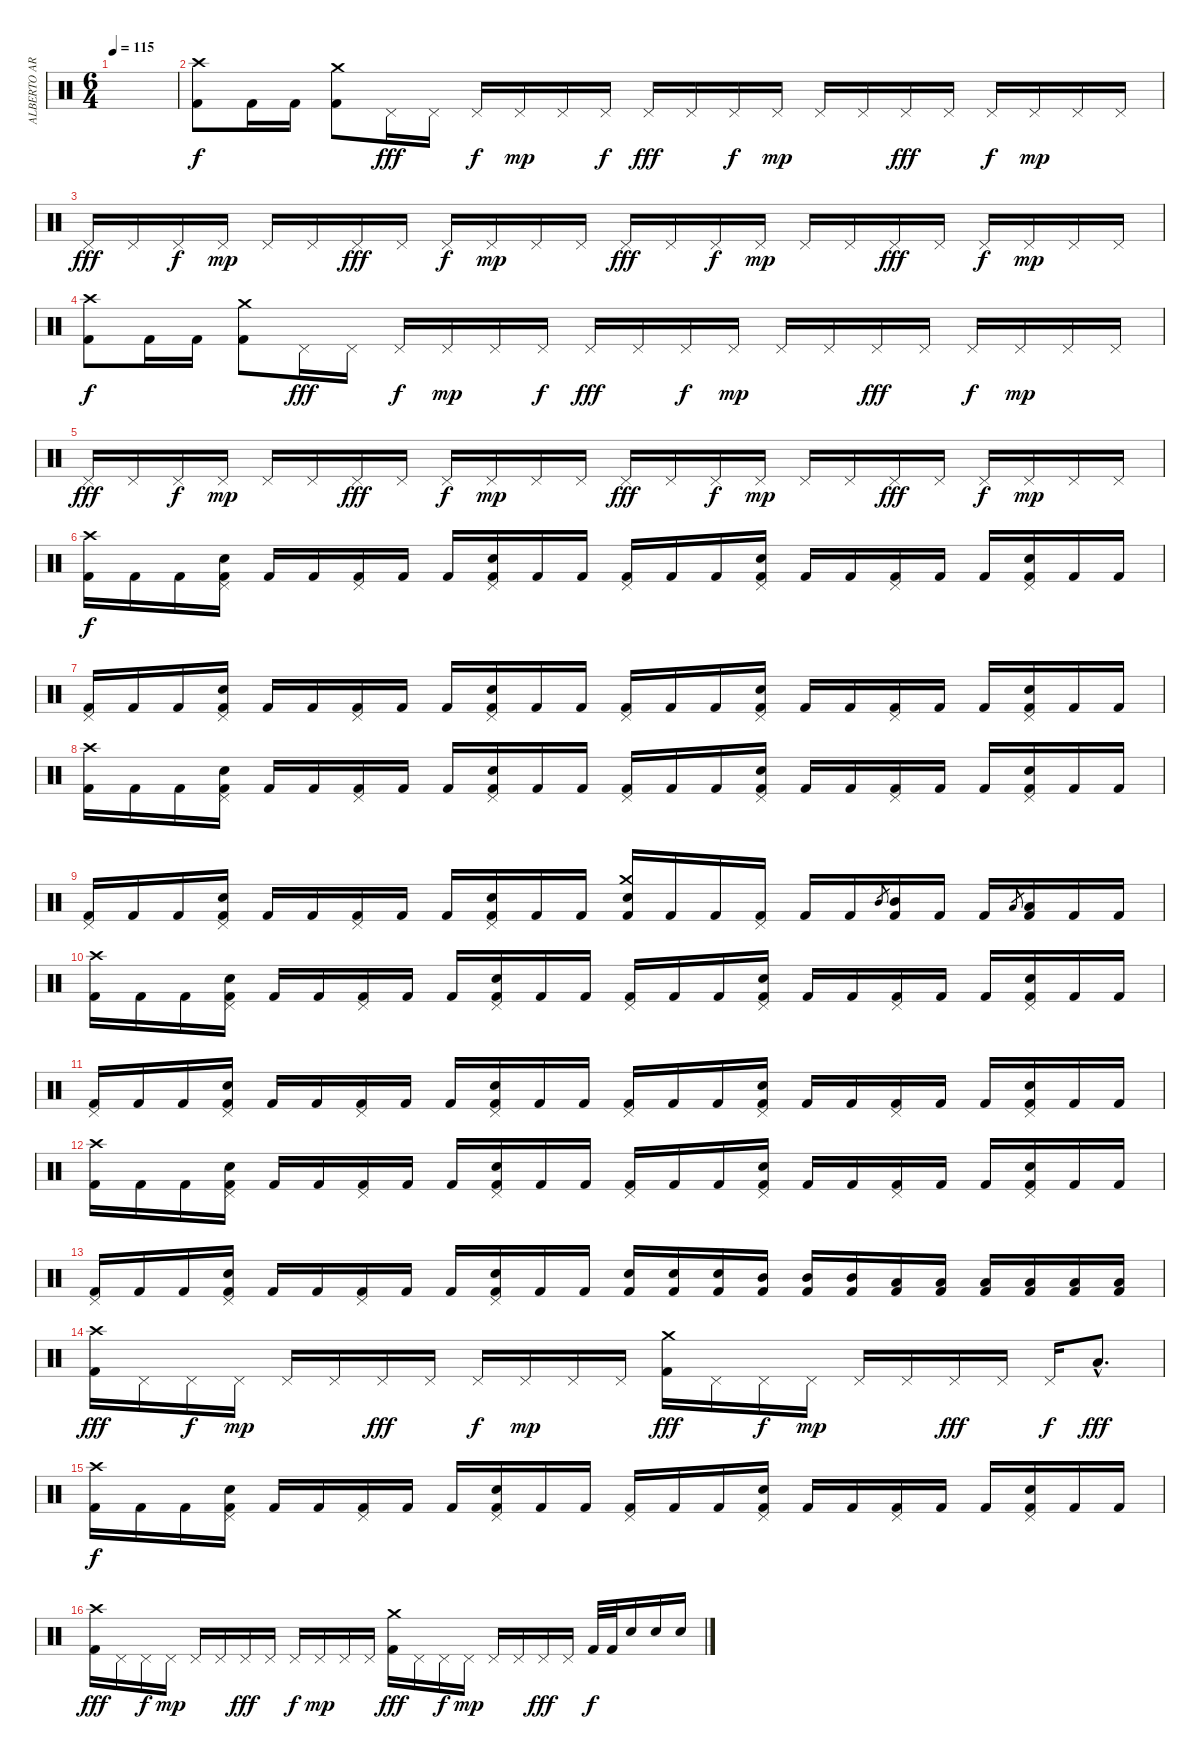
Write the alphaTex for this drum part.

\track ("ALBERTO ARDINES" "ALBERTO AR") {instrument percussion}
\staff {score}
\articulation defaults
\ts (6 4)
\tempo 115
\clef neutral
\ks c
|
("Crash high (hit)" "Kick (hit) 2").8 "Kick (hit) 2".16 "Kick (hit) 2".16 ("Crash medium (hit)" "Kick (hit) 2").8 "Pedal Hi-Hat (hit)".16{dy fff} "Pedal Hi-Hat (hit)".16 "Pedal Hi-Hat (hit)".16{dy f} "Pedal Hi-Hat (hit)".16{dy mp} "Pedal Hi-Hat (hit)".16 "Pedal Hi-Hat (hit)".16{dy f} "Pedal Hi-Hat (hit)".16{dy fff} "Pedal Hi-Hat (hit)".16 "Pedal Hi-Hat (hit)".16{dy f} "Pedal Hi-Hat (hit)".16{dy mp} "Pedal Hi-Hat (hit)".16 "Pedal Hi-Hat (hit)".16 "Pedal Hi-Hat (hit)".16{dy fff} "Pedal Hi-Hat (hit)".16 "Pedal Hi-Hat (hit)".16{dy f} "Pedal Hi-Hat (hit)".16{dy mp} "Pedal Hi-Hat (hit)".16 "Pedal Hi-Hat (hit)".16 |
"Pedal Hi-Hat (hit)".16{dy fff} "Pedal Hi-Hat (hit)".16 "Pedal Hi-Hat (hit)".16{dy f} "Pedal Hi-Hat (hit)".16{dy mp} "Pedal Hi-Hat (hit)".16 "Pedal Hi-Hat (hit)".16 "Pedal Hi-Hat (hit)".16{dy fff} "Pedal Hi-Hat (hit)".16 "Pedal Hi-Hat (hit)".16{dy f} "Pedal Hi-Hat (hit)".16{dy mp} "Pedal Hi-Hat (hit)".16 "Pedal Hi-Hat (hit)".16 "Pedal Hi-Hat (hit)".16{dy fff} "Pedal Hi-Hat (hit)".16 "Pedal Hi-Hat (hit)".16{dy f} "Pedal Hi-Hat (hit)".16{dy mp} "Pedal Hi-Hat (hit)".16 "Pedal Hi-Hat (hit)".16 "Pedal Hi-Hat (hit)".16{dy fff} "Pedal Hi-Hat (hit)".16 "Pedal Hi-Hat (hit)".16{dy f} "Pedal Hi-Hat (hit)".16{dy mp} "Pedal Hi-Hat (hit)".16 "Pedal Hi-Hat (hit)".16 |
("Crash high (hit)" "Kick (hit) 2").8{dy f} "Kick (hit) 2".16 "Kick (hit) 2".16 ("Crash medium (hit)" "Kick (hit) 2").8 "Pedal Hi-Hat (hit)".16{dy fff} "Pedal Hi-Hat (hit)".16 "Pedal Hi-Hat (hit)".16{dy f} "Pedal Hi-Hat (hit)".16{dy mp} "Pedal Hi-Hat (hit)".16 "Pedal Hi-Hat (hit)".16{dy f} "Pedal Hi-Hat (hit)".16{dy fff} "Pedal Hi-Hat (hit)".16 "Pedal Hi-Hat (hit)".16{dy f} "Pedal Hi-Hat (hit)".16{dy mp} "Pedal Hi-Hat (hit)".16 "Pedal Hi-Hat (hit)".16 "Pedal Hi-Hat (hit)".16{dy fff} "Pedal Hi-Hat (hit)".16 "Pedal Hi-Hat (hit)".16{dy f} "Pedal Hi-Hat (hit)".16{dy mp} "Pedal Hi-Hat (hit)".16 "Pedal Hi-Hat (hit)".16 |
"Pedal Hi-Hat (hit)".16{dy fff} "Pedal Hi-Hat (hit)".16 "Pedal Hi-Hat (hit)".16{dy f} "Pedal Hi-Hat (hit)".16{dy mp} "Pedal Hi-Hat (hit)".16 "Pedal Hi-Hat (hit)".16 "Pedal Hi-Hat (hit)".16{dy fff} "Pedal Hi-Hat (hit)".16 "Pedal Hi-Hat (hit)".16{dy f} "Pedal Hi-Hat (hit)".16{dy mp} "Pedal Hi-Hat (hit)".16 "Pedal Hi-Hat (hit)".16 "Pedal Hi-Hat (hit)".16{dy fff} "Pedal Hi-Hat (hit)".16 "Pedal Hi-Hat (hit)".16{dy f} "Pedal Hi-Hat (hit)".16{dy mp} "Pedal Hi-Hat (hit)".16 "Pedal Hi-Hat (hit)".16 "Pedal Hi-Hat (hit)".16{dy fff} "Pedal Hi-Hat (hit)".16 "Pedal Hi-Hat (hit)".16{dy f} "Pedal Hi-Hat (hit)".16{dy mp} "Pedal Hi-Hat (hit)".16 "Pedal Hi-Hat (hit)".16 |
("Crash high (hit)" "Kick (hit) 2").16{dy f} "Kick (hit) 2".16 "Kick (hit) 2".16 ("Pedal Hi-Hat (hit)" "Electric Snare (hit)" "Kick (hit) 2").16 "Kick (hit) 2".16 "Kick (hit) 2".16 ("Pedal Hi-Hat (hit)" "Kick (hit) 2").16 "Kick (hit) 2".16 "Kick (hit) 2".16 ("Pedal Hi-Hat (hit)" "Electric Snare (hit)" "Kick (hit) 2").16 "Kick (hit) 2".16 "Kick (hit) 2".16 ("Pedal Hi-Hat (hit)" "Kick (hit) 2").16 "Kick (hit) 2".16 "Kick (hit) 2".16 ("Pedal Hi-Hat (hit)" "Electric Snare (hit)" "Kick (hit) 2").16 "Kick (hit) 2".16 "Kick (hit) 2".16 ("Pedal Hi-Hat (hit)" "Kick (hit) 2").16 "Kick (hit) 2".16 "Kick (hit) 2".16 ("Pedal Hi-Hat (hit)" "Electric Snare (hit)" "Kick (hit) 2").16 "Kick (hit) 2".16 "Kick (hit) 2".16 |
("Pedal Hi-Hat (hit)" "Kick (hit) 2").16 "Kick (hit) 2".16 "Kick (hit) 2".16 ("Pedal Hi-Hat (hit)" "Electric Snare (hit)" "Kick (hit) 2").16 "Kick (hit) 2".16 "Kick (hit) 2".16 ("Pedal Hi-Hat (hit)" "Kick (hit) 2").16 "Kick (hit) 2".16 "Kick (hit) 2".16 ("Pedal Hi-Hat (hit)" "Electric Snare (hit)" "Kick (hit) 2").16 "Kick (hit) 2".16 "Kick (hit) 2".16 ("Pedal Hi-Hat (hit)" "Kick (hit) 2").16 "Kick (hit) 2".16 "Kick (hit) 2".16 ("Pedal Hi-Hat (hit)" "Electric Snare (hit)" "Kick (hit) 2").16 "Kick (hit) 2".16 "Kick (hit) 2".16 ("Pedal Hi-Hat (hit)" "Kick (hit) 2").16 "Kick (hit) 2".16 "Kick (hit) 2".16 ("Pedal Hi-Hat (hit)" "Electric Snare (hit)" "Kick (hit) 2").16 "Kick (hit) 2".16 "Kick (hit) 2".16 |
("Crash high (hit)" "Kick (hit) 2").16 "Kick (hit) 2".16 "Kick (hit) 2".16 ("Pedal Hi-Hat (hit)" "Electric Snare (hit)" "Kick (hit) 2").16 "Kick (hit) 2".16 "Kick (hit) 2".16 ("Pedal Hi-Hat (hit)" "Kick (hit) 2").16 "Kick (hit) 2".16 "Kick (hit) 2".16 ("Pedal Hi-Hat (hit)" "Electric Snare (hit)" "Kick (hit) 2").16 "Kick (hit) 2".16 "Kick (hit) 2".16 ("Pedal Hi-Hat (hit)" "Kick (hit) 2").16 "Kick (hit) 2".16 "Kick (hit) 2".16 ("Pedal Hi-Hat (hit)" "Electric Snare (hit)" "Kick (hit) 2").16 "Kick (hit) 2".16 "Kick (hit) 2".16 ("Pedal Hi-Hat (hit)" "Kick (hit) 2").16 "Kick (hit) 2".16 "Kick (hit) 2".16 ("Pedal Hi-Hat (hit)" "Electric Snare (hit)" "Kick (hit) 2").16 "Kick (hit) 2".16 "Kick (hit) 2".16 |
("Pedal Hi-Hat (hit)" "Kick (hit) 2").16 "Kick (hit) 2".16 "Kick (hit) 2".16 ("Pedal Hi-Hat (hit)" "Electric Snare (hit)" "Kick (hit) 2").16 "Kick (hit) 2".16 "Kick (hit) 2".16 ("Pedal Hi-Hat (hit)" "Kick (hit) 2").16 "Kick (hit) 2".16 "Kick (hit) 2".16 ("Pedal Hi-Hat (hit)" "Electric Snare (hit)" "Kick (hit) 2").16 "Kick (hit) 2".16 "Kick (hit) 2".16 ("Crash medium (hit)" "Electric Snare (hit)" "Kick (hit) 2").16 "Kick (hit) 2".16 "Kick (hit) 2".16 ("Pedal Hi-Hat (hit)" "Kick (hit) 2").16 "Kick (hit) 2".16 "Kick (hit) 2".16 "Mid Tom (hit)".8{gr} ("Mid Tom (hit)" "Kick (hit) 2").16 "Kick (hit) 2".16 "Kick (hit) 2".16 "Low Tom (hit)".8{gr} ("Low Tom (hit)" "Kick (hit) 2").16 "Kick (hit) 2".16 "Kick (hit) 2".16 |
("Crash high (hit)" "Kick (hit) 2").16 "Kick (hit) 2".16 "Kick (hit) 2".16 ("Pedal Hi-Hat (hit)" "Electric Snare (hit)" "Kick (hit) 2").16 "Kick (hit) 2".16 "Kick (hit) 2".16 ("Pedal Hi-Hat (hit)" "Kick (hit) 2").16 "Kick (hit) 2".16 "Kick (hit) 2".16 ("Pedal Hi-Hat (hit)" "Electric Snare (hit)" "Kick (hit) 2").16 "Kick (hit) 2".16 "Kick (hit) 2".16 ("Pedal Hi-Hat (hit)" "Kick (hit) 2").16 "Kick (hit) 2".16 "Kick (hit) 2".16 ("Pedal Hi-Hat (hit)" "Electric Snare (hit)" "Kick (hit) 2").16 "Kick (hit) 2".16 "Kick (hit) 2".16 ("Pedal Hi-Hat (hit)" "Kick (hit) 2").16 "Kick (hit) 2".16 "Kick (hit) 2".16 ("Pedal Hi-Hat (hit)" "Electric Snare (hit)" "Kick (hit) 2").16 "Kick (hit) 2".16 "Kick (hit) 2".16 |
("Pedal Hi-Hat (hit)" "Kick (hit) 2").16 "Kick (hit) 2".16 "Kick (hit) 2".16 ("Pedal Hi-Hat (hit)" "Electric Snare (hit)" "Kick (hit) 2").16 "Kick (hit) 2".16 "Kick (hit) 2".16 ("Pedal Hi-Hat (hit)" "Kick (hit) 2").16 "Kick (hit) 2".16 "Kick (hit) 2".16 ("Pedal Hi-Hat (hit)" "Electric Snare (hit)" "Kick (hit) 2").16 "Kick (hit) 2".16 "Kick (hit) 2".16 ("Pedal Hi-Hat (hit)" "Kick (hit) 2").16 "Kick (hit) 2".16 "Kick (hit) 2".16 ("Pedal Hi-Hat (hit)" "Electric Snare (hit)" "Kick (hit) 2").16 "Kick (hit) 2".16 "Kick (hit) 2".16 ("Pedal Hi-Hat (hit)" "Kick (hit) 2").16 "Kick (hit) 2".16 "Kick (hit) 2".16 ("Pedal Hi-Hat (hit)" "Electric Snare (hit)" "Kick (hit) 2").16 "Kick (hit) 2".16 "Kick (hit) 2".16 |
("Crash high (hit)" "Kick (hit) 2").16 "Kick (hit) 2".16 "Kick (hit) 2".16 ("Pedal Hi-Hat (hit)" "Electric Snare (hit)" "Kick (hit) 2").16 "Kick (hit) 2".16 "Kick (hit) 2".16 ("Pedal Hi-Hat (hit)" "Kick (hit) 2").16 "Kick (hit) 2".16 "Kick (hit) 2".16 ("Pedal Hi-Hat (hit)" "Electric Snare (hit)" "Kick (hit) 2").16 "Kick (hit) 2".16 "Kick (hit) 2".16 ("Pedal Hi-Hat (hit)" "Kick (hit) 2").16 "Kick (hit) 2".16 "Kick (hit) 2".16 ("Pedal Hi-Hat (hit)" "Electric Snare (hit)" "Kick (hit) 2").16 "Kick (hit) 2".16 "Kick (hit) 2".16 ("Pedal Hi-Hat (hit)" "Kick (hit) 2").16 "Kick (hit) 2".16 "Kick (hit) 2".16 ("Pedal Hi-Hat (hit)" "Electric Snare (hit)" "Kick (hit) 2").16 "Kick (hit) 2".16 "Kick (hit) 2".16 |
("Pedal Hi-Hat (hit)" "Kick (hit) 2").16 "Kick (hit) 2".16 "Kick (hit) 2".16 ("Pedal Hi-Hat (hit)" "Electric Snare (hit)" "Kick (hit) 2").16 "Kick (hit) 2".16 "Kick (hit) 2".16 ("Pedal Hi-Hat (hit)" "Kick (hit) 2").16 "Kick (hit) 2".16 "Kick (hit) 2".16 ("Pedal Hi-Hat (hit)" "Electric Snare (hit)" "Kick (hit) 2").16 "Kick (hit) 2".16 "Kick (hit) 2".16 ("Electric Snare (hit)" "Kick (hit) 2").16 ("Electric Snare (hit)" "Kick (hit) 2").16 ("Electric Snare (hit)" "Kick (hit) 2").16 ("Mid Tom (hit)" "Kick (hit) 2").16 ("Mid Tom (hit)" "Kick (hit) 2").16 ("Mid Tom (hit)" "Kick (hit) 2").16 ("Low Tom (hit)" "Kick (hit) 2").16 ("Low Tom (hit)" "Kick (hit) 2").16 ("Low Tom (hit)" "Kick (hit) 2").16 ("Low Floor Tom (hit)" "Kick (hit) 2").16 ("Low Floor Tom (hit)" "Kick (hit) 2").16 ("Low Floor Tom (hit)" "Kick (hit) 2").16 |
("Crash high (hit)" "Kick (hit) 2").16{dy fff} "Pedal Hi-Hat (hit)".16 "Pedal Hi-Hat (hit)".16{dy f} "Pedal Hi-Hat (hit)".16{dy mp} "Pedal Hi-Hat (hit)".16 "Pedal Hi-Hat (hit)".16 "Pedal Hi-Hat (hit)".16{dy fff} "Pedal Hi-Hat (hit)".16 "Pedal Hi-Hat (hit)".16{dy f} "Pedal Hi-Hat (hit)".16{dy mp} "Pedal Hi-Hat (hit)".16 "Pedal Hi-Hat (hit)".16 ("Crash medium (hit)" "Kick (hit) 2").16{dy fff} "Pedal Hi-Hat (hit)".16 "Pedal Hi-Hat (hit)".16{dy f} "Pedal Hi-Hat (hit)".16{dy mp} "Pedal Hi-Hat (hit)".16 "Pedal Hi-Hat (hit)".16 "Pedal Hi-Hat (hit)".16{dy fff} "Pedal Hi-Hat (hit)".16 "Pedal Hi-Hat (hit)".16{dy f} "Low Tom (hit)"{hac}.8{d dy fff} |
("Crash high (hit)" "Kick (hit) 2").16{dy f} "Kick (hit) 2".16 "Kick (hit) 2".16 ("Pedal Hi-Hat (hit)" "Electric Snare (hit)" "Kick (hit) 2").16 "Kick (hit) 2".16 "Kick (hit) 2".16 ("Pedal Hi-Hat (hit)" "Kick (hit) 2").16 "Kick (hit) 2".16 "Kick (hit) 2".16 ("Pedal Hi-Hat (hit)" "Electric Snare (hit)" "Kick (hit) 2").16 "Kick (hit) 2".16 "Kick (hit) 2".16 ("Pedal Hi-Hat (hit)" "Kick (hit) 2").16 "Kick (hit) 2".16 "Kick (hit) 2".16 ("Pedal Hi-Hat (hit)" "Electric Snare (hit)" "Kick (hit) 2").16 "Kick (hit) 2".16 "Kick (hit) 2".16 ("Pedal Hi-Hat (hit)" "Kick (hit) 2").16 "Kick (hit) 2".16 "Kick (hit) 2".16 ("Pedal Hi-Hat (hit)" "Electric Snare (hit)" "Kick (hit) 2").16 "Kick (hit) 2".16 "Kick (hit) 2".16 |
("Crash high (hit)" "Kick (hit) 2").16{dy fff} "Pedal Hi-Hat (hit)".16 "Pedal Hi-Hat (hit)".16{dy f} "Pedal Hi-Hat (hit)".16{dy mp} "Pedal Hi-Hat (hit)".16 "Pedal Hi-Hat (hit)".16 "Pedal Hi-Hat (hit)".16{dy fff} "Pedal Hi-Hat (hit)".16 "Pedal Hi-Hat (hit)".16{dy f} "Pedal Hi-Hat (hit)".16{dy mp} "Pedal Hi-Hat (hit)".16 "Pedal Hi-Hat (hit)".16 ("Crash medium (hit)" "Kick (hit) 2").16{dy fff} "Pedal Hi-Hat (hit)".16 "Pedal Hi-Hat (hit)".16{dy f} "Pedal Hi-Hat (hit)".16{dy mp} "Pedal Hi-Hat (hit)".16 "Pedal Hi-Hat (hit)".16 "Pedal Hi-Hat (hit)".16{dy fff} "Pedal Hi-Hat (hit)".16 "Kick (hit) 2".32{dy f} "Kick (hit) 2".32 "Electric Snare (hit)".16 "Electric Snare (hit)".16 "Electric Snare (hit)".16
